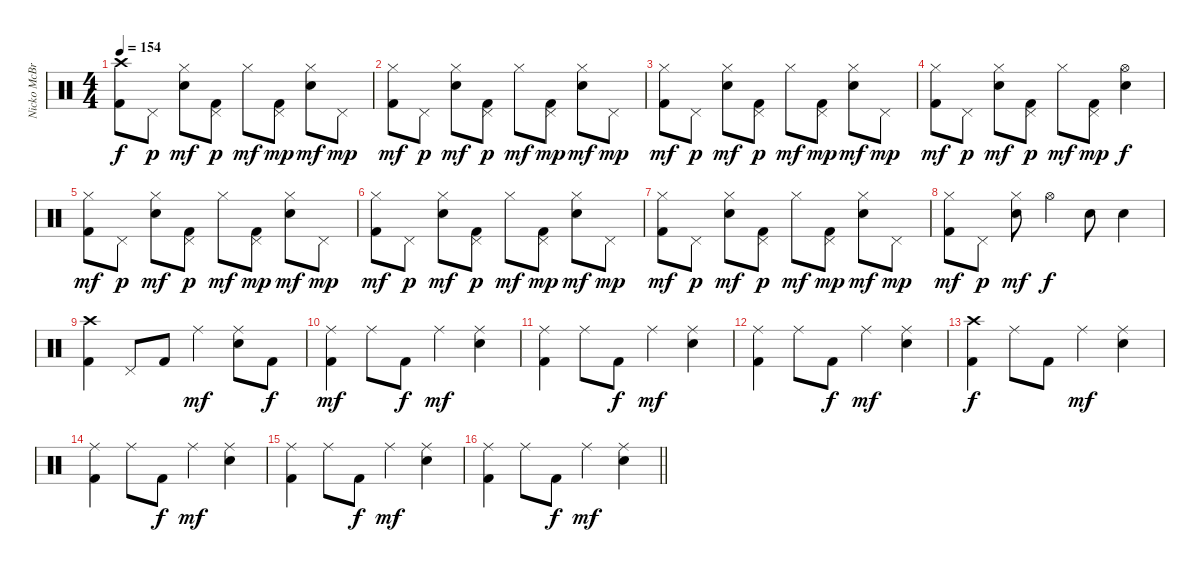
\track ("Nicko McBrain" "Nicko McBr") {instrument percussion}
\staff {score}
\articulation defaults
\ts (4 4)
\tempo 154
\clef neutral
\ks c
("Crash high (hit)" "Kick (hit) 2").8{dy f} "Pedal Hi-Hat (hit)".8{dy p} ("Hi-Hat (closed)" "Electric Snare (hit)").8{dy mf} ("Pedal Hi-Hat (hit)" "Kick (hit) 2").8{dy p} "Hi-Hat (closed)".8{dy mf} ("Pedal Hi-Hat (hit)" "Kick (hit) 2").8{dy mp} ("Hi-Hat (closed)" "Electric Snare (hit)").8{dy mf} "Pedal Hi-Hat (hit)".8{dy mp} |
("Hi-Hat (closed)" "Kick (hit) 2").8{dy mf} "Pedal Hi-Hat (hit)".8{dy p} ("Hi-Hat (closed)" "Electric Snare (hit)").8{dy mf} ("Pedal Hi-Hat (hit)" "Kick (hit) 2").8{dy p} "Hi-Hat (closed)".8{dy mf} ("Pedal Hi-Hat (hit)" "Kick (hit) 2").8{dy mp} ("Hi-Hat (closed)" "Electric Snare (hit)").8{dy mf} "Pedal Hi-Hat (hit)".8{dy mp} |
("Hi-Hat (closed)" "Kick (hit) 2").8{dy mf} "Pedal Hi-Hat (hit)".8{dy p} ("Hi-Hat (closed)" "Electric Snare (hit)").8{dy mf} ("Pedal Hi-Hat (hit)" "Kick (hit) 2").8{dy p} "Hi-Hat (closed)".8{dy mf} ("Pedal Hi-Hat (hit)" "Kick (hit) 2").8{dy mp} ("Hi-Hat (closed)" "Electric Snare (hit)").8{dy mf} "Pedal Hi-Hat (hit)".8{dy mp} |
("Hi-Hat (closed)" "Kick (hit) 2").8{dy mf} "Pedal Hi-Hat (hit)".8{dy p} ("Hi-Hat (closed)" "Electric Snare (hit)").8{dy mf} ("Pedal Hi-Hat (hit)" "Kick (hit) 2").8{dy p} "Hi-Hat (closed)".8{dy mf} ("Pedal Hi-Hat (hit)" "Kick (hit) 2").8{dy mp} ("Hi-Hat (open)" "Electric Snare (hit)").4{dy f} |
("Hi-Hat (closed)" "Kick (hit) 2").8{dy mf} "Pedal Hi-Hat (hit)".8{dy p} ("Hi-Hat (closed)" "Electric Snare (hit)").8{dy mf} ("Pedal Hi-Hat (hit)" "Kick (hit) 2").8{dy p} "Hi-Hat (closed)".8{dy mf} ("Pedal Hi-Hat (hit)" "Kick (hit) 2").8{dy mp} ("Hi-Hat (closed)" "Electric Snare (hit)").8{dy mf} "Pedal Hi-Hat (hit)".8{dy mp} |
("Hi-Hat (closed)" "Kick (hit) 2").8{dy mf} "Pedal Hi-Hat (hit)".8{dy p} ("Hi-Hat (closed)" "Electric Snare (hit)").8{dy mf} ("Pedal Hi-Hat (hit)" "Kick (hit) 2").8{dy p} "Hi-Hat (closed)".8{dy mf} ("Pedal Hi-Hat (hit)" "Kick (hit) 2").8{dy mp} ("Hi-Hat (closed)" "Electric Snare (hit)").8{dy mf} "Pedal Hi-Hat (hit)".8{dy mp} |
("Hi-Hat (closed)" "Kick (hit) 2").8{dy mf} "Pedal Hi-Hat (hit)".8{dy p} ("Hi-Hat (closed)" "Electric Snare (hit)").8{dy mf} ("Pedal Hi-Hat (hit)" "Kick (hit) 2").8{dy p} "Hi-Hat (closed)".8{dy mf} ("Pedal Hi-Hat (hit)" "Kick (hit) 2").8{dy mp} ("Hi-Hat (closed)" "Electric Snare (hit)").8{dy mf} "Pedal Hi-Hat (hit)".8{dy mp} |
("Hi-Hat (closed)" "Kick (hit) 2").8{dy mf} "Pedal Hi-Hat (hit)".8{dy p} ("Hi-Hat (closed)" "Electric Snare (hit)").8{dy mf} "Hi-Hat (open)".4{dy f} "Electric Snare (hit)".8 "Electric Snare (hit)".4 |
("Crash high (hit)" "Kick (hit) 2").4 "Pedal Hi-Hat (hit)".8 "Kick (hit) 2".8 "Ride (middle)".4{dy mf} ("Ride (middle)" "Electric Snare (hit)").8 "Kick (hit) 2".8{dy f} |
("Ride (middle)" "Kick (hit) 2").4{dy mf} "Ride (middle)".8 "Kick (hit) 2".8{dy f} "Ride (middle)".4{dy mf} ("Ride (middle)" "Electric Snare (hit)").4 |
("Ride (middle)" "Kick (hit) 2").4 "Ride (middle)".8 "Kick (hit) 2".8{dy f} "Ride (middle)".4{dy mf} ("Ride (middle)" "Electric Snare (hit)").4 |
("Ride (middle)" "Kick (hit) 2").4 "Ride (middle)".8 "Kick (hit) 2".8{dy f} "Ride (middle)".4{dy mf} ("Ride (middle)" "Electric Snare (hit)").4 |
("Crash high (hit)" "Kick (hit) 2").4{dy f} "Ride (middle)".8 "Kick (hit) 2".8 "Ride (middle)".4{dy mf} ("Ride (middle)" "Electric Snare (hit)").4 |
("Ride (middle)" "Kick (hit) 2").4 "Ride (middle)".8 "Kick (hit) 2".8{dy f} "Ride (middle)".4{dy mf} ("Ride (middle)" "Electric Snare (hit)").4 |
("Ride (middle)" "Kick (hit) 2").4 "Ride (middle)".8 "Kick (hit) 2".8{dy f} "Ride (middle)".4{dy mf} ("Ride (middle)" "Electric Snare (hit)").4 |
\barLineRight lightlight
("Ride (middle)" "Kick (hit) 2").4 "Ride (middle)".8 "Kick (hit) 2".8{dy f} "Ride (middle)".4{dy mf} ("Ride (middle)" "Electric Snare (hit)").4
